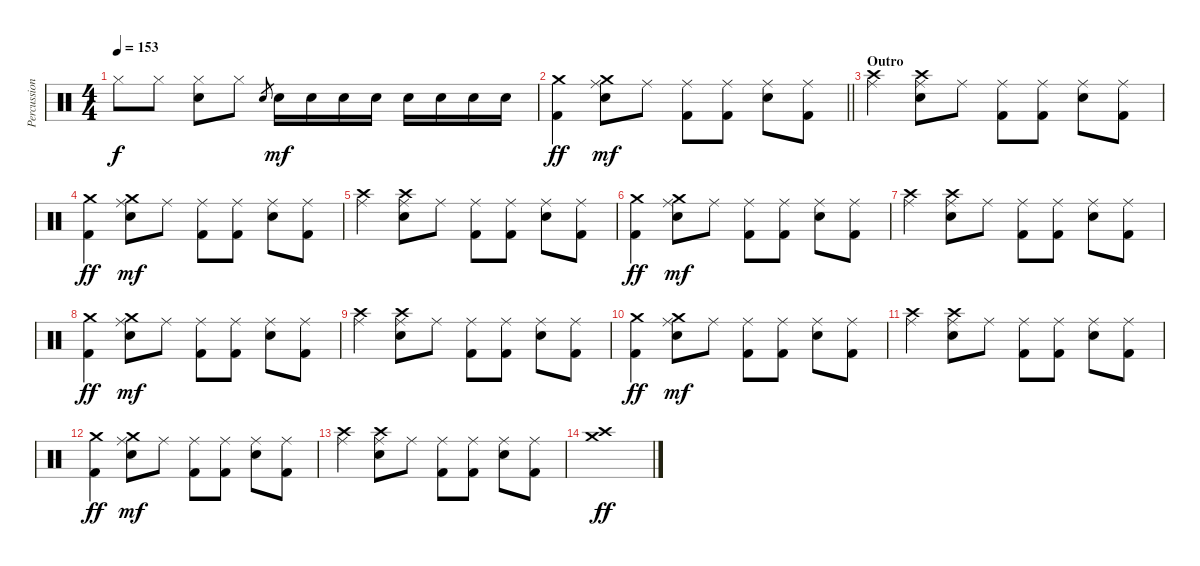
\track ("Percussion" "Percussion") {instrument percussion}
\staff {score}
\articulation defaults
\ts (4 4)
\tempo 153
\clef neutral
\ks c "Hi-Hat (closed)".8{dy f} "Hi-Hat (closed)".8
("Hi-Hat (closed)" "Electric Snare (hit)").8 "Hi-Hat (closed)".8 "Electric Snare (hit)".8{gr} "Electric Snare (hit)".16{dy mf} "Electric Snare (hit)".16 "Electric Snare (hit)".16 "Electric Snare (hit)".16 "Snare (hit) 2".16 "Snare (hit) 2".16 "Snare (hit) 2".16 "Snare (hit) 2".16 |
\barLineRight lightlight
("Crash medium (hit)" "Kick (hit) 2").4{dy ff} ("Crash medium (hit)" "Ride (middle)" "Electric Snare (hit)").8{dy mf} "Ride (middle)".8 ("Ride (middle)" "Kick (hit) 2").8 ("Ride (middle)" "Kick (hit) 2").8 ("Ride (middle)" "Electric Snare (hit)").8 ("Ride (middle)" "Kick (hit) 2").8 |
\section ("" "Outro")
("Crash high (hit)" "Ride (middle)").4 ("Crash high (hit)" "Ride (middle)" "Electric Snare (hit)").8 "Ride (middle)".8 ("Ride (middle)" "Kick (hit) 2").8 ("Ride (middle)" "Kick (hit) 2").8 ("Ride (middle)" "Electric Snare (hit)").8 ("Ride (middle)" "Kick (hit) 2").8 |
("Crash medium (hit)" "Kick (hit) 2").4{dy ff} ("Crash medium (hit)" "Ride (middle)" "Electric Snare (hit)").8{dy mf} "Ride (middle)".8 ("Ride (middle)" "Kick (hit) 2").8 ("Ride (middle)" "Kick (hit) 2").8 ("Ride (middle)" "Electric Snare (hit)").8 ("Ride (middle)" "Kick (hit) 2").8 |
("Crash high (hit)" "Ride (middle)").4 ("Crash high (hit)" "Ride (middle)" "Electric Snare (hit)").8 "Ride (middle)".8 ("Ride (middle)" "Kick (hit) 2").8 ("Ride (middle)" "Kick (hit) 2").8 ("Ride (middle)" "Electric Snare (hit)").8 ("Ride (middle)" "Kick (hit) 2").8 |
("Crash medium (hit)" "Kick (hit) 2").4{dy ff} ("Crash medium (hit)" "Ride (middle)" "Electric Snare (hit)").8{dy mf} "Ride (middle)".8 ("Ride (middle)" "Kick (hit) 2").8 ("Ride (middle)" "Kick (hit) 2").8 ("Ride (middle)" "Electric Snare (hit)").8 ("Ride (middle)" "Kick (hit) 2").8 |
("Crash high (hit)" "Ride (middle)").4 ("Crash high (hit)" "Ride (middle)" "Electric Snare (hit)").8 "Ride (middle)".8 ("Ride (middle)" "Kick (hit) 2").8 ("Ride (middle)" "Kick (hit) 2").8 ("Ride (middle)" "Electric Snare (hit)").8 ("Ride (middle)" "Kick (hit) 2").8 |
("Crash medium (hit)" "Kick (hit) 2").4{dy ff} ("Crash medium (hit)" "Ride (middle)" "Electric Snare (hit)").8{dy mf} "Ride (middle)".8 ("Ride (middle)" "Kick (hit) 2").8 ("Ride (middle)" "Kick (hit) 2").8 ("Ride (middle)" "Electric Snare (hit)").8 ("Ride (middle)" "Kick (hit) 2").8 |
("Crash high (hit)" "Ride (middle)").4 ("Crash high (hit)" "Ride (middle)" "Electric Snare (hit)").8 "Ride (middle)".8 ("Ride (middle)" "Kick (hit) 2").8 ("Ride (middle)" "Kick (hit) 2").8 ("Ride (middle)" "Electric Snare (hit)").8 ("Ride (middle)" "Kick (hit) 2").8 |
("Crash medium (hit)" "Kick (hit) 2").4{dy ff} ("Crash medium (hit)" "Ride (middle)" "Electric Snare (hit)").8{dy mf} "Ride (middle)".8 ("Ride (middle)" "Kick (hit) 2").8 ("Ride (middle)" "Kick (hit) 2").8 ("Ride (middle)" "Electric Snare (hit)").8 ("Ride (middle)" "Kick (hit) 2").8 |
("Crash high (hit)" "Ride (middle)").4 ("Crash high (hit)" "Ride (middle)" "Electric Snare (hit)").8 "Ride (middle)".8 ("Ride (middle)" "Kick (hit) 2").8 ("Ride (middle)" "Kick (hit) 2").8 ("Ride (middle)" "Electric Snare (hit)").8 ("Ride (middle)" "Kick (hit) 2").8 |
("Crash medium (hit)" "Kick (hit) 2").4{dy ff} ("Crash medium (hit)" "Ride (middle)" "Electric Snare (hit)").8{dy mf} "Ride (middle)".8 ("Ride (middle)" "Kick (hit) 2").8 ("Ride (middle)" "Kick (hit) 2").8 ("Ride (middle)" "Electric Snare (hit)").8 ("Ride (middle)" "Kick (hit) 2").8 |
("Crash high (hit)" "Ride (middle)").4 ("Crash high (hit)" "Ride (middle)" "Electric Snare (hit)").8 "Ride (middle)".8 ("Ride (middle)" "Kick (hit) 2").8 ("Ride (middle)" "Kick (hit) 2").8 ("Ride (middle)" "Electric Snare (hit)").8 ("Ride (middle)" "Kick (hit) 2").8 |
("Crash high (hit)" "Crash medium (hit)").1{dy ff}
